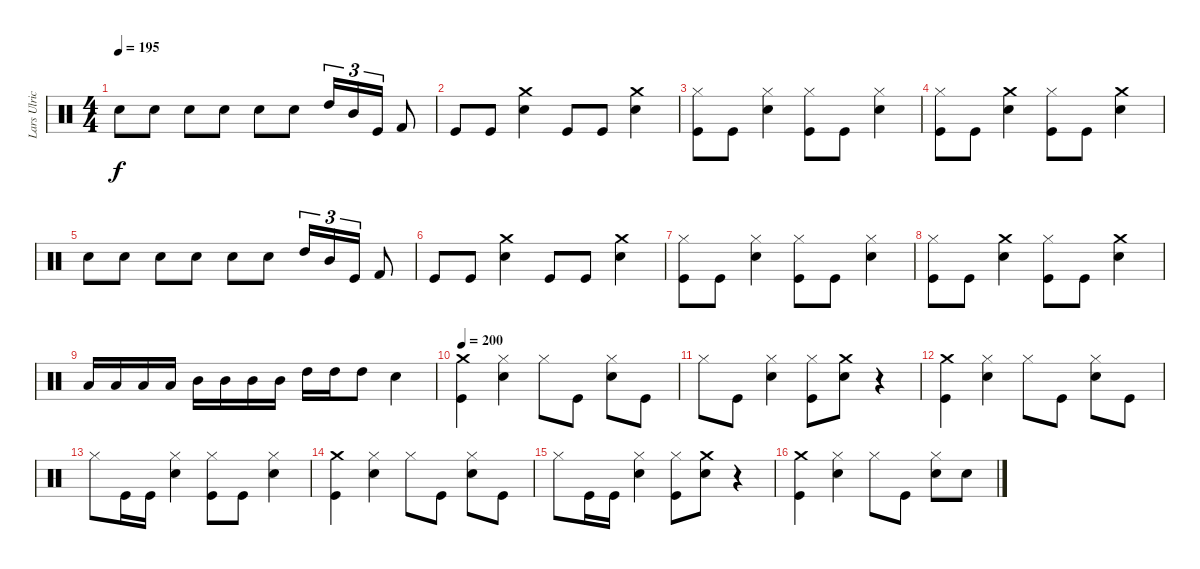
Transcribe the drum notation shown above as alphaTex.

\track ("Lars Ulrich (Drums)" "Lars Ulric") {instrument percussion}
\staff {score}
\articulation defaults
\ts (4 4)
\tempo 195
\clef neutral
\ks c "Snare (hit) 2".8{dy f} "Snare (hit) 2".8 "Snare (hit) 2".8 "Snare (hit) 2".8 "Snare (hit) 2".8 "Snare (hit) 2".8 "High Tom (hit)".16{tu (3 2)} "Mid Tom (hit)".16{tu (3 2)} "Kick (hit)".16{tu (3 2)} "Kick (hit) 2".8
|
"Kick (hit)".8 "Kick (hit)".8 ("Crash medium (hit)" "Snare (hit) 2").4 "Kick (hit)".8 "Kick (hit)".8 ("Crash medium (hit)" "Snare (hit) 2").4 |
("Kick (hit)" "Hi-Hat (closed)").8 "Kick (hit)".8 ("Snare (hit) 2" "Hi-Hat (closed)").4 ("Kick (hit)" "Hi-Hat (closed)").8 "Kick (hit)".8 ("Snare (hit) 2" "Hi-Hat (closed)").4 |
("Kick (hit)" "Hi-Hat (closed)").8 "Kick (hit)".8 ("Snare (hit) 2" "Crash medium (hit)").4 ("Kick (hit)" "Hi-Hat (closed)").8 "Kick (hit)".8 ("Crash medium (hit)" "Snare (hit) 2").4 |
"Snare (hit) 2".8 "Snare (hit) 2".8 "Snare (hit) 2".8 "Snare (hit) 2".8 "Snare (hit) 2".8 "Snare (hit) 2".8 "High Tom (hit)".16{tu (3 2)} "Mid Tom (hit)".16{tu (3 2)} "Kick (hit)".16{tu (3 2)} "Kick (hit) 2".8 |
"Kick (hit)".8 "Kick (hit)".8 ("Crash medium (hit)" "Snare (hit) 2").4 "Kick (hit)".8 "Kick (hit)".8 ("Crash medium (hit)" "Snare (hit) 2").4 |
("Kick (hit)" "Hi-Hat (closed)").8 "Kick (hit)".8 ("Snare (hit) 2" "Hi-Hat (closed)").4 ("Kick (hit)" "Hi-Hat (closed)").8 "Kick (hit)".8 ("Snare (hit) 2" "Hi-Hat (closed)").4 |
("Kick (hit)" "Hi-Hat (closed)").8 "Kick (hit)".8 ("Snare (hit) 2" "Crash medium (hit)").4 ("Kick (hit)" "Hi-Hat (closed)").8 "Kick (hit)".8 ("Crash medium (hit)" "Snare (hit) 2").4 |
"Low Tom (hit)".16 "Low Tom (hit)".16 "Low Tom (hit)".16 "Low Tom (hit)".16 "Mid Tom (hit)".16 "Mid Tom (hit)".16 "Mid Tom (hit)".16 "Mid Tom (hit)".16 "High Tom (hit)".16 "High Tom (hit)".16 "High Tom (hit)".8 "Snare (hit) 2".4 |
\tempo 200
("Kick (hit)" "Crash medium (hit)").4 ("Hi-Hat (closed)" "Snare (hit) 2").4 "Hi-Hat (closed)".8 "Kick (hit)".8 ("Snare (hit) 2" "Hi-Hat (closed)").8 "Kick (hit)".8 |
"Hi-Hat (closed)".8 "Kick (hit)".8 ("Snare (hit) 2" "Hi-Hat (closed)").4 ("Hi-Hat (closed)" "Kick (hit)").8 ("Crash medium (hit)" "Snare (hit) 2").8 r.4 |
("Crash medium (hit)" "Kick (hit)").4 ("Hi-Hat (closed)" "Snare (hit) 2").4 "Hi-Hat (closed)".8 "Kick (hit)".8 ("Snare (hit) 2" "Hi-Hat (closed)").8 "Kick (hit)".8 |
"Hi-Hat (closed)".8 "Kick (hit)".16 "Kick (hit)".16 ("Snare (hit) 2" "Hi-Hat (closed)").4 ("Hi-Hat (closed)" "Kick (hit)").8 "Kick (hit)".8 ("Snare (hit) 2" "Hi-Hat (closed)").4 |
("Kick (hit)" "Crash medium (hit)").4 ("Hi-Hat (closed)" "Snare (hit) 2").4 "Hi-Hat (closed)".8 "Kick (hit)".8 ("Snare (hit) 2" "Hi-Hat (closed)").8 "Kick (hit)".8 |
"Hi-Hat (closed)".8 "Kick (hit)".16 "Kick (hit)".16 ("Snare (hit) 2" "Hi-Hat (closed)").4 ("Hi-Hat (closed)" "Kick (hit)").8 ("Crash medium (hit)" "Snare (hit) 2").8 r.4 |
("Kick (hit)" "Crash medium (hit)").4 ("Hi-Hat (closed)" "Snare (hit) 2").4 "Hi-Hat (closed)".8 "Kick (hit)".8 ("Hi-Hat (closed)" "Snare (hit) 2").8 "Snare (hit) 2".8
